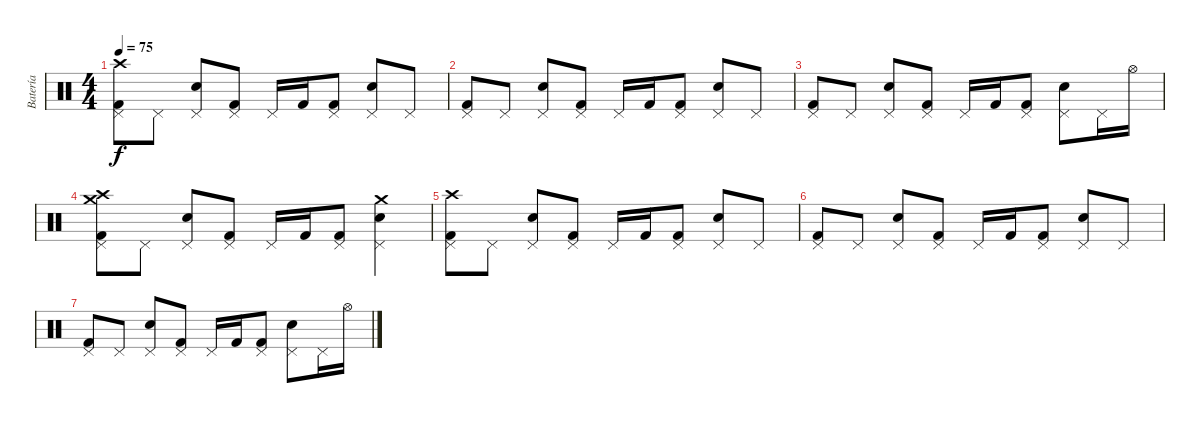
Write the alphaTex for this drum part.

\track ("Batería" "Batería") {instrument percussion}
\staff {score}
\articulation defaults
\ts (4 4)
\tempo 75
\clef neutral
\ks c
("Crash high (hit)" "Pedal Hi-Hat (hit)" "Kick (hit) 2").8{dy f} "Pedal Hi-Hat (hit)".8 ("Pedal Hi-Hat (hit)" "Electric Snare (hit)").8 ("Pedal Hi-Hat (hit)" "Kick (hit) 2").8 "Pedal Hi-Hat (hit)".16 "Kick (hit) 2".16 ("Pedal Hi-Hat (hit)" "Kick (hit) 2").8 ("Pedal Hi-Hat (hit)" "Electric Snare (hit)").8 "Pedal Hi-Hat (hit)".8 |
("Pedal Hi-Hat (hit)" "Kick (hit) 2").8 "Pedal Hi-Hat (hit)".8 ("Pedal Hi-Hat (hit)" "Electric Snare (hit)").8 ("Pedal Hi-Hat (hit)" "Kick (hit) 2").8 "Pedal Hi-Hat (hit)".16 "Kick (hit) 2".16 ("Pedal Hi-Hat (hit)" "Kick (hit) 2").8 ("Pedal Hi-Hat (hit)" "Electric Snare (hit)").8 "Pedal Hi-Hat (hit)".8 |
("Pedal Hi-Hat (hit)" "Kick (hit) 2").8 "Pedal Hi-Hat (hit)".8 ("Pedal Hi-Hat (hit)" "Electric Snare (hit)").8 ("Pedal Hi-Hat (hit)" "Kick (hit) 2").8 "Pedal Hi-Hat (hit)".16 "Kick (hit) 2".16 ("Pedal Hi-Hat (hit)" "Kick (hit) 2").8 ("Pedal Hi-Hat (hit)" "Electric Snare (hit)").8 "Pedal Hi-Hat (hit)".16 "Hi-Hat (open)".16 |
("Crash high (hit)" "Crash medium (hit)" "Pedal Hi-Hat (hit)" "Kick (hit) 2").8 "Pedal Hi-Hat (hit)".8 ("Pedal Hi-Hat (hit)" "Electric Snare (hit)").8 ("Pedal Hi-Hat (hit)" "Kick (hit) 2").8 "Pedal Hi-Hat (hit)".16 "Kick (hit) 2".16 ("Pedal Hi-Hat (hit)" "Kick (hit) 2").8 ("Crash medium (hit)" "Pedal Hi-Hat (hit)" "Electric Snare (hit)").4 |
("Crash high (hit)" "Pedal Hi-Hat (hit)" "Kick (hit) 2").8 "Pedal Hi-Hat (hit)".8 ("Pedal Hi-Hat (hit)" "Electric Snare (hit)").8 ("Pedal Hi-Hat (hit)" "Kick (hit) 2").8 "Pedal Hi-Hat (hit)".16 "Kick (hit) 2".16 ("Pedal Hi-Hat (hit)" "Kick (hit) 2").8 ("Pedal Hi-Hat (hit)" "Electric Snare (hit)").8 "Pedal Hi-Hat (hit)".8 |
("Pedal Hi-Hat (hit)" "Kick (hit) 2").8 "Pedal Hi-Hat (hit)".8 ("Pedal Hi-Hat (hit)" "Electric Snare (hit)").8 ("Pedal Hi-Hat (hit)" "Kick (hit) 2").8 "Pedal Hi-Hat (hit)".16 "Kick (hit) 2".16 ("Pedal Hi-Hat (hit)" "Kick (hit) 2").8 ("Pedal Hi-Hat (hit)" "Electric Snare (hit)").8 "Pedal Hi-Hat (hit)".8 |
("Pedal Hi-Hat (hit)" "Kick (hit) 2").8 "Pedal Hi-Hat (hit)".8 ("Pedal Hi-Hat (hit)" "Electric Snare (hit)").8 ("Pedal Hi-Hat (hit)" "Kick (hit) 2").8 "Pedal Hi-Hat (hit)".16 "Kick (hit) 2".16 ("Pedal Hi-Hat (hit)" "Kick (hit) 2").8 ("Pedal Hi-Hat (hit)" "Electric Snare (hit)").8 "Pedal Hi-Hat (hit)".16 "Hi-Hat (open)".16
